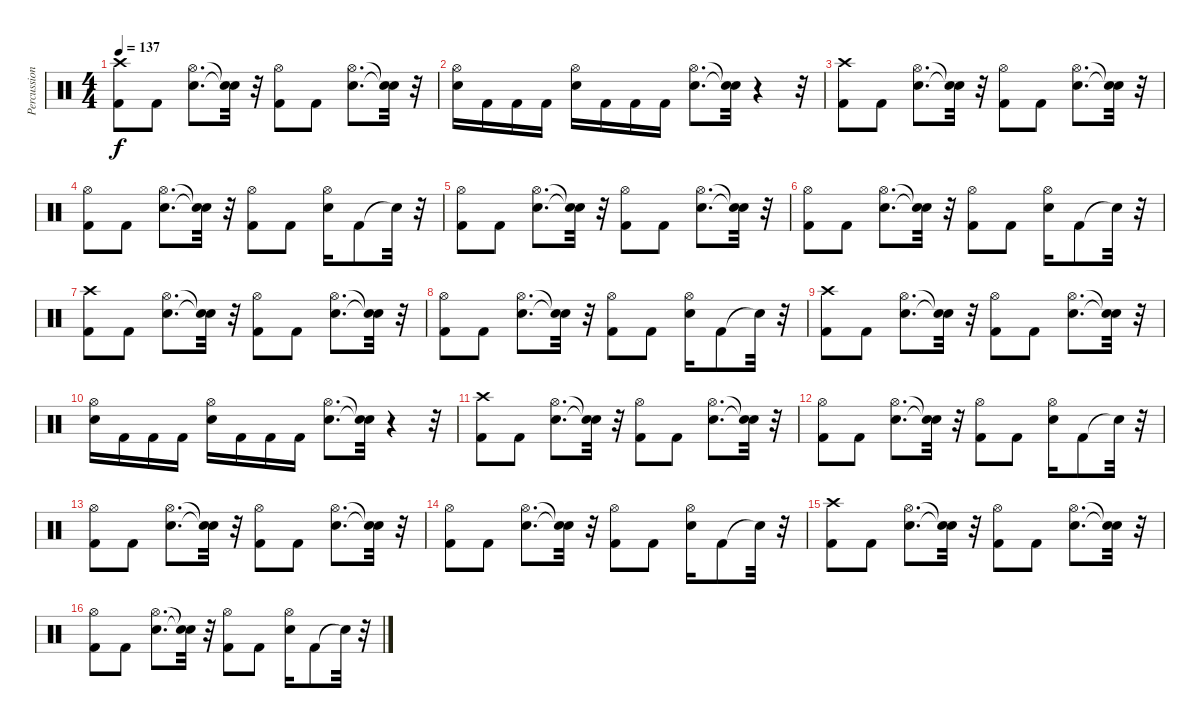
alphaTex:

\track ("Percussion" "Percussion") {instrument percussion}
\staff {score}
\articulation defaults
\ts (4 4)
\tempo 137
\clef neutral
\ks c
("Kick (hit) 2" "Crash high (hit)").8{dy f} "Kick (hit) 2".8 ("Snare (hit) 2" "Hi-Hat (open)").8{d} ("Snare (hit)"{t} "Snare (hit)"{t}).32 r.32 ("Kick (hit) 2" "Hi-Hat (open)").8 "Kick (hit) 2".8 ("Hi-Hat (open)" "Snare (hit) 2").8{d} ("Snare (hit)"{t} "Snare (hit)"{t}).32 r.32 |
("Snare (hit) 2" "Hi-Hat (open)").16 "Kick (hit) 2".16 "Kick (hit) 2".16 "Kick (hit) 2".16 ("Snare (hit) 2" "Hi-Hat (open)").16 "Kick (hit) 2".16 "Kick (hit) 2".16 "Kick (hit) 2".16 ("Snare (hit) 2" "Hi-Hat (open)").8{d} ("Snare (hit)"{t} "Snare (hit)"{t}).32 r.4 r.32 |
("Kick (hit) 2" "Crash high (hit)").8 "Kick (hit) 2".8 ("Snare (hit) 2" "Hi-Hat (open)").8{d} ("Snare (hit)"{t} "Snare (hit)"{t}).32 r.32 ("Kick (hit) 2" "Hi-Hat (open)").8 "Kick (hit) 2".8 ("Hi-Hat (open)" "Snare (hit) 2").8{d} ("Snare (hit)"{t} "Snare (hit)"{t}).32 r.32 |
("Kick (hit) 2" "Hi-Hat (open)").8 "Kick (hit) 2".8 ("Snare (hit) 2" "Hi-Hat (open)").8{d} ("Snare (hit)"{t} "Snare (hit)"{t}).32 r.32 ("Kick (hit) 2" "Hi-Hat (open)").8 "Kick (hit) 2".8 ("Hi-Hat (open)" "Snare (hit) 2").16 "Kick (hit) 2".8 "Snare (hit)"{t}.32 r.32 |
("Kick (hit) 2" "Hi-Hat (open)").8 "Kick (hit) 2".8 ("Snare (hit) 2" "Hi-Hat (open)").8{d} ("Snare (hit)"{t} "Snare (hit)"{t}).32 r.32 ("Kick (hit) 2" "Hi-Hat (open)").8 "Kick (hit) 2".8 ("Hi-Hat (open)" "Snare (hit) 2").8{d} ("Snare (hit)"{t} "Snare (hit)"{t}).32 r.32 |
("Kick (hit) 2" "Hi-Hat (open)").8 "Kick (hit) 2".8 ("Snare (hit) 2" "Hi-Hat (open)").8{d} ("Snare (hit)"{t} "Snare (hit)"{t}).32 r.32 ("Kick (hit) 2" "Hi-Hat (open)").8 "Kick (hit) 2".8 ("Hi-Hat (open)" "Snare (hit) 2").16 "Kick (hit) 2".8 "Snare (hit)"{t}.32 r.32 |
("Kick (hit) 2" "Crash high (hit)").8 "Kick (hit) 2".8 ("Snare (hit) 2" "Hi-Hat (open)").8{d} ("Snare (hit)"{t} "Snare (hit)"{t}).32 r.32 ("Kick (hit) 2" "Hi-Hat (open)").8 "Kick (hit) 2".8 ("Hi-Hat (open)" "Snare (hit) 2").8{d} ("Snare (hit)"{t} "Snare (hit)"{t}).32 r.32 |
("Kick (hit) 2" "Hi-Hat (open)").8 "Kick (hit) 2".8 ("Snare (hit) 2" "Hi-Hat (open)").8{d} ("Snare (hit)"{t} "Snare (hit)"{t}).32 r.32 ("Kick (hit) 2" "Hi-Hat (open)").8 "Kick (hit) 2".8 ("Hi-Hat (open)" "Snare (hit) 2").16 "Kick (hit) 2".8 "Snare (hit)"{t}.32 r.32 |
("Kick (hit) 2" "Crash high (hit)").8 "Kick (hit) 2".8 ("Snare (hit) 2" "Hi-Hat (open)").8{d} ("Snare (hit)"{t} "Snare (hit)"{t}).32 r.32 ("Kick (hit) 2" "Hi-Hat (open)").8 "Kick (hit) 2".8 ("Hi-Hat (open)" "Snare (hit) 2").8{d} ("Snare (hit)"{t} "Snare (hit)"{t}).32 r.32 |
("Snare (hit) 2" "Hi-Hat (open)").16 "Kick (hit) 2".16 "Kick (hit) 2".16 "Kick (hit) 2".16 ("Snare (hit) 2" "Hi-Hat (open)").16 "Kick (hit) 2".16 "Kick (hit) 2".16 "Kick (hit) 2".16 ("Snare (hit) 2" "Hi-Hat (open)").8{d} ("Snare (hit)"{t} "Snare (hit)"{t}).32 r.4 r.32 |
("Kick (hit) 2" "Crash high (hit)").8 "Kick (hit) 2".8 ("Snare (hit) 2" "Hi-Hat (open)").8{d} ("Snare (hit)"{t} "Snare (hit)"{t}).32 r.32 ("Kick (hit) 2" "Hi-Hat (open)").8 "Kick (hit) 2".8 ("Hi-Hat (open)" "Snare (hit) 2").8{d} ("Snare (hit)"{t} "Snare (hit)"{t}).32 r.32 |
("Kick (hit) 2" "Hi-Hat (open)").8 "Kick (hit) 2".8 ("Snare (hit) 2" "Hi-Hat (open)").8{d} ("Snare (hit)"{t} "Snare (hit)"{t}).32 r.32 ("Kick (hit) 2" "Hi-Hat (open)").8 "Kick (hit) 2".8 ("Hi-Hat (open)" "Snare (hit) 2").16 "Kick (hit) 2".8 "Snare (hit)"{t}.32 r.32 |
("Kick (hit) 2" "Hi-Hat (open)").8 "Kick (hit) 2".8 ("Snare (hit) 2" "Hi-Hat (open)").8{d} ("Snare (hit)"{t} "Snare (hit)"{t}).32 r.32 ("Kick (hit) 2" "Hi-Hat (open)").8 "Kick (hit) 2".8 ("Hi-Hat (open)" "Snare (hit) 2").8{d} ("Snare (hit)"{t} "Snare (hit)"{t}).32 r.32 |
("Kick (hit) 2" "Hi-Hat (open)").8 "Kick (hit) 2".8 ("Snare (hit) 2" "Hi-Hat (open)").8{d} ("Snare (hit)"{t} "Snare (hit)"{t}).32 r.32 ("Kick (hit) 2" "Hi-Hat (open)").8 "Kick (hit) 2".8 ("Hi-Hat (open)" "Snare (hit) 2").16 "Kick (hit) 2".8 "Snare (hit)"{t}.32 r.32 |
("Kick (hit) 2" "Crash high (hit)").8 "Kick (hit) 2".8 ("Snare (hit) 2" "Hi-Hat (open)").8{d} ("Snare (hit)"{t} "Snare (hit)"{t}).32 r.32 ("Kick (hit) 2" "Hi-Hat (open)").8 "Kick (hit) 2".8 ("Hi-Hat (open)" "Snare (hit) 2").8{d} ("Snare (hit)"{t} "Snare (hit)"{t}).32 r.32 |
("Kick (hit) 2" "Hi-Hat (open)").8 "Kick (hit) 2".8 ("Snare (hit) 2" "Hi-Hat (open)").8{d} ("Snare (hit)"{t} "Snare (hit)"{t}).32 r.32 ("Kick (hit) 2" "Hi-Hat (open)").8 "Kick (hit) 2".8 ("Hi-Hat (open)" "Snare (hit) 2").16 "Kick (hit) 2".8 "Snare (hit)"{t}.32 r.32
